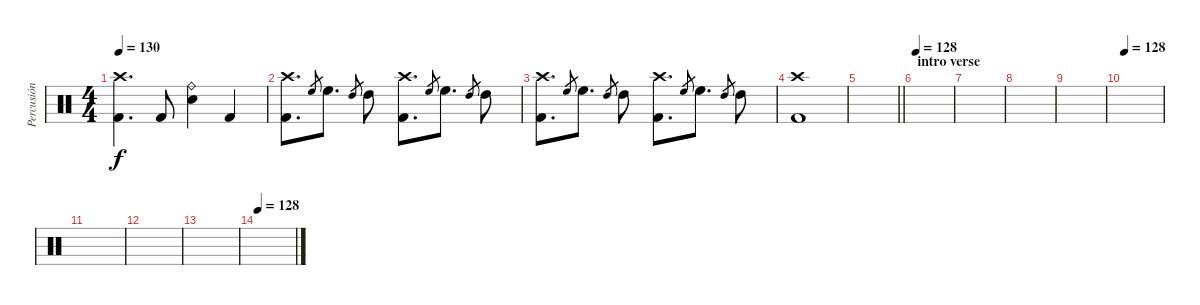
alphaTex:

\track ("Percusión" "Percusión") {instrument percussion}
\staff {score}
\articulation defaults
\ts (4 4)
\tempo 130
\clef neutral
\ks c
("Crash high (hit)" "Kick (hit) 2").4{d dy f} "Kick (hit) 2".8 ("Ride (bell)" "Electric Snare (hit)").4 "Kick (hit) 2".4 |
("Crash high (hit)" "Kick (hit) 2").8{d} "High Floor Tom (hit)".8{gr} "High Floor Tom (hit)".8{d} "High Tom (hit)".8{gr} "High Tom (hit)".8 ("Crash high (hit)" "Kick (hit) 2").8{d} "High Floor Tom (hit)".8{gr} "High Floor Tom (hit)".8{d} "High Tom (hit)".8{gr} "High Tom (hit)".8 |
("Crash high (hit)" "Kick (hit) 2").8{d} "High Floor Tom (hit)".8{gr} "High Floor Tom (hit)".8{d} "High Tom (hit)".8{gr} "High Tom (hit)".8 ("Crash high (hit)" "Kick (hit) 2").8{d} "High Floor Tom (hit)".8{gr} "High Floor Tom (hit)".8{d} "High Tom (hit)".8{gr} "High Tom (hit)".8 |
("Crash high (hit)" "Kick (hit) 2").1 |
\barLineRight lightlight
|
\section ("" "intro verse")
\tempo 128
|
|
|
|
\tempo 128
|
|
|
|
\tempo 128
